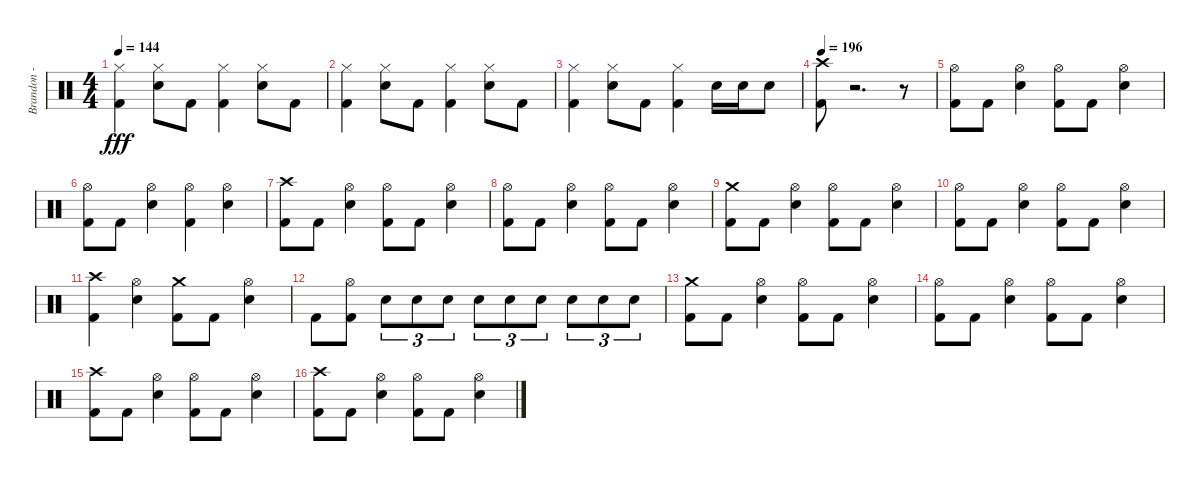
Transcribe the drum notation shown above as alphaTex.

\track ("Brandon - Drums" "Brandon - ") {instrument percussion}
\staff {score}
\articulation defaults
\ts (4 4)
\tempo 144
\clef neutral
\ks c
("Hi-Hat (closed)" "Kick (hit) 2").4{dy fff} ("Hi-Hat (closed)" "Snare (hit) 2").8 "Kick (hit) 2".8 ("Hi-Hat (closed)" "Kick (hit) 2").4 ("Hi-Hat (closed)" "Snare (hit) 2").8 "Kick (hit) 2".8 |
("Hi-Hat (closed)" "Kick (hit) 2").4 ("Hi-Hat (closed)" "Snare (hit) 2").8 "Kick (hit) 2".8 ("Hi-Hat (closed)" "Kick (hit) 2").4 ("Hi-Hat (closed)" "Snare (hit) 2").8 "Kick (hit) 2".8 |
("Hi-Hat (closed)" "Kick (hit) 2").4 ("Hi-Hat (closed)" "Snare (hit) 2").8 "Kick (hit) 2".8 ("Hi-Hat (closed)" "Kick (hit) 2").4 "Snare (hit) 2".16 "Snare (hit) 2".16 "Snare (hit) 2".8 |
\tempo 196
("Crash high (hit)" "Kick (hit) 2").8 r.2{d} r.8 |
("Hi-Hat (open)" "Kick (hit) 2").8 "Kick (hit) 2".8 ("Hi-Hat (open)" "Snare (hit) 2").4 ("Hi-Hat (open)" "Kick (hit) 2").8 "Kick (hit) 2".8 ("Hi-Hat (open)" "Snare (hit) 2").4 |
("Hi-Hat (open)" "Kick (hit) 2").8 "Kick (hit) 2".8 ("Hi-Hat (open)" "Snare (hit) 2").4 ("Hi-Hat (open)" "Kick (hit) 2").4 ("Hi-Hat (open)" "Snare (hit) 2").4 |
("Crash high (hit)" "Kick (hit) 2").8 "Kick (hit) 2".8 ("Hi-Hat (open)" "Snare (hit) 2").4 ("Hi-Hat (open)" "Kick (hit) 2").8 "Kick (hit) 2".8 ("Hi-Hat (open)" "Snare (hit) 2").4 |
("Hi-Hat (open)" "Kick (hit) 2").8 "Kick (hit) 2".8 ("Hi-Hat (open)" "Snare (hit) 2").4 ("Hi-Hat (open)" "Kick (hit) 2").8 "Kick (hit) 2".8 ("Hi-Hat (open)" "Snare (hit) 2").4 |
("Crash medium (hit)" "Kick (hit) 2").8 "Kick (hit) 2".8 ("Hi-Hat (open)" "Snare (hit) 2").4 ("Hi-Hat (open)" "Kick (hit) 2").8 "Kick (hit) 2".8 ("Hi-Hat (open)" "Snare (hit) 2").4 |
("Hi-Hat (open)" "Kick (hit) 2").8 "Kick (hit) 2".8 ("Hi-Hat (open)" "Snare (hit) 2").4 ("Hi-Hat (open)" "Kick (hit) 2").8 "Kick (hit) 2".8 ("Hi-Hat (open)" "Snare (hit) 2").4 |
("Crash high (hit)" "Kick (hit) 2").4 ("Hi-Hat (open)" "Snare (hit) 2").4 ("Crash medium (hit)" "Kick (hit) 2").8 "Kick (hit) 2".8 ("Hi-Hat (open)" "Snare (hit) 2").4 |
"Kick (hit) 2".8 ("Hi-Hat (open)" "Kick (hit) 2").8 "Snare (hit) 2".8{tu (3 2)} "Snare (hit) 2".8{tu (3 2)} "Snare (hit) 2".8{tu (3 2)} "Snare (hit) 2".8{tu (3 2)} "Snare (hit) 2".8{tu (3 2)} "Snare (hit) 2".8{tu (3 2)} "Snare (hit) 2".8{tu (3 2)} "Snare (hit) 2".8{tu (3 2)} "Snare (hit) 2".8{tu (3 2)} |
("Crash medium (hit)" "Kick (hit) 2").8 "Kick (hit) 2".8 ("Hi-Hat (open)" "Snare (hit) 2").4 ("Hi-Hat (open)" "Kick (hit) 2").8 "Kick (hit) 2".8 ("Hi-Hat (open)" "Snare (hit) 2").4 |
("Hi-Hat (open)" "Kick (hit) 2").8 "Kick (hit) 2".8 ("Hi-Hat (open)" "Snare (hit) 2").4 ("Hi-Hat (open)" "Kick (hit) 2").8 "Kick (hit) 2".8 ("Hi-Hat (open)" "Snare (hit) 2").4 |
("Crash high (hit)" "Kick (hit) 2").8 "Kick (hit) 2".8 ("Hi-Hat (open)" "Snare (hit) 2").4 ("Hi-Hat (open)" "Kick (hit) 2").8 "Kick (hit) 2".8 ("Hi-Hat (open)" "Snare (hit) 2").4 |
("Crash high (hit)" "Kick (hit) 2").8 "Kick (hit) 2".8 ("Hi-Hat (open)" "Snare (hit) 2").4 ("Hi-Hat (open)" "Kick (hit) 2").8 "Kick (hit) 2".8 ("Hi-Hat (open)" "Snare (hit) 2").4
